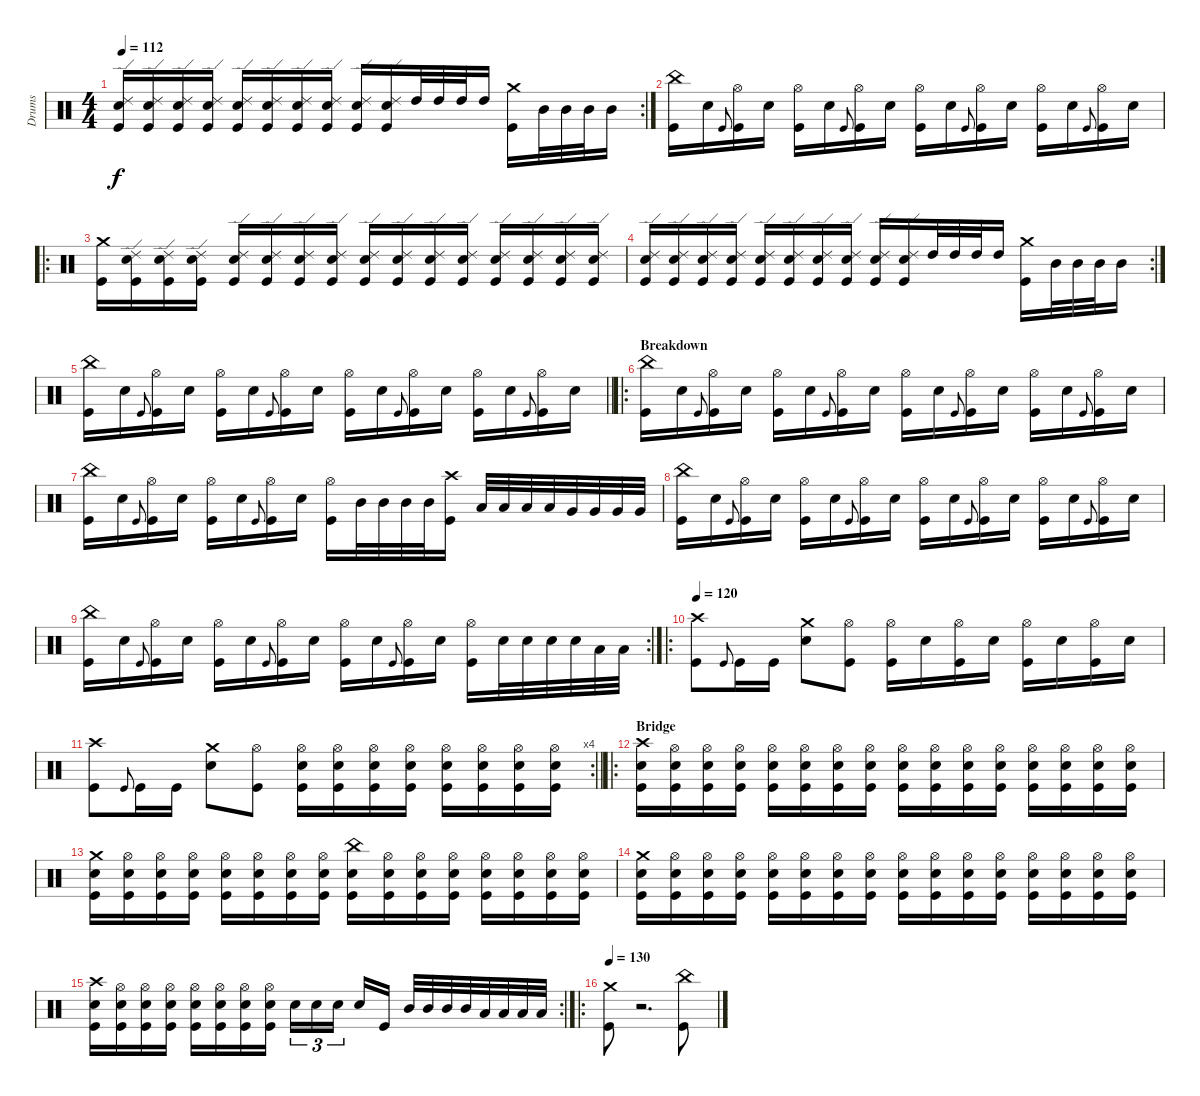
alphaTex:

\track ("Drums" "Drums") {instrument percussion}
\staff {score}
\articulation defaults
\rc 2
\ts (4 4)
\tempo 112
\clef neutral
\ks aminor
("Ride (edge) 2" "Electric Snare (hit)" "Kick (hit)").16{dy f} ("Ride (edge) 2" "Electric Snare (hit)" "Kick (hit)").16 ("Ride (edge) 2" "Electric Snare (hit)" "Kick (hit)").16 ("Ride (edge) 2" "Electric Snare (hit)" "Kick (hit)").16 ("Ride (edge) 2" "Electric Snare (hit)" "Kick (hit)").16 ("Ride (edge) 2" "Electric Snare (hit)" "Kick (hit)").16 ("Ride (edge) 2" "Electric Snare (hit)" "Kick (hit)").16 ("Ride (edge) 2" "Electric Snare (hit)" "Kick (hit)").16 ("Ride (edge) 2" "Electric Snare (hit)" "Kick (hit)").16 ("Ride (edge) 2" "Electric Snare (hit)" "Kick (hit)").16 "High Tom (hit)".32 "High Tom (hit)".32 "High Tom (hit)".32 "High Tom (hit)".16 ("Crash medium (hit)" "Kick (hit)").16 "Mid Tom (hit)".32 "Mid Tom (hit)".32 "Mid Tom (hit)".32 "Mid Tom (hit)".16 |
("China (hit)" "Kick (hit)").16 "Electric Snare (hit)".16 "Kick (hit)".8{gr onbeat} ("Hi-Hat (open)" "Kick (hit)").16 "Electric Snare (hit)".16 ("Hi-Hat (open)" "Kick (hit)").16 "Electric Snare (hit)".16 "Kick (hit)".8{gr onbeat} ("Hi-Hat (open)" "Kick (hit)").16 "Electric Snare (hit)".16 ("Hi-Hat (open)" "Kick (hit)").16 "Electric Snare (hit)".16 "Kick (hit)".8{gr onbeat} ("Hi-Hat (open)" "Kick (hit)").16 "Electric Snare (hit)".16 ("Hi-Hat (open)" "Kick (hit)").16 "Electric Snare (hit)".16 "Kick (hit)".8{gr onbeat} ("Hi-Hat (open)" "Kick (hit)").16 "Electric Snare (hit)".16 |
\ro
("Crash medium (hit)" "Kick (hit)").16 ("Ride (edge) 2" "Electric Snare (hit)" "Kick (hit)").16 ("Ride (edge) 2" "Electric Snare (hit)" "Kick (hit)").16 ("Ride (edge) 2" "Electric Snare (hit)" "Kick (hit)").16 ("Ride (edge) 2" "Electric Snare (hit)" "Kick (hit)").16 ("Ride (edge) 2" "Electric Snare (hit)" "Kick (hit)").16 ("Ride (edge) 2" "Electric Snare (hit)" "Kick (hit)").16 ("Ride (edge) 2" "Electric Snare (hit)" "Kick (hit)").16 ("Ride (edge) 2" "Electric Snare (hit)" "Kick (hit)").16 ("Ride (edge) 2" "Electric Snare (hit)" "Kick (hit)").16 ("Ride (edge) 2" "Electric Snare (hit)" "Kick (hit)").16 ("Ride (edge) 2" "Electric Snare (hit)" "Kick (hit)").16 ("Ride (edge) 2" "Electric Snare (hit)" "Kick (hit)").16 ("Ride (edge) 2" "Electric Snare (hit)" "Kick (hit)").16 ("Ride (edge) 2" "Electric Snare (hit)" "Kick (hit)").16 ("Ride (edge) 2" "Electric Snare (hit)" "Kick (hit)").16 |
\rc 2
("Ride (edge) 2" "Electric Snare (hit)" "Kick (hit)").16 ("Ride (edge) 2" "Electric Snare (hit)" "Kick (hit)").16 ("Ride (edge) 2" "Electric Snare (hit)" "Kick (hit)").16 ("Ride (edge) 2" "Electric Snare (hit)" "Kick (hit)").16 ("Ride (edge) 2" "Electric Snare (hit)" "Kick (hit)").16 ("Ride (edge) 2" "Electric Snare (hit)" "Kick (hit)").16 ("Ride (edge) 2" "Electric Snare (hit)" "Kick (hit)").16 ("Ride (edge) 2" "Electric Snare (hit)" "Kick (hit)").16 ("Ride (edge) 2" "Electric Snare (hit)" "Kick (hit)").16 ("Ride (edge) 2" "Electric Snare (hit)" "Kick (hit)").16 "High Tom (hit)".32 "High Tom (hit)".32 "High Tom (hit)".32 "High Tom (hit)".16 ("Crash medium (hit)" "Kick (hit)").16 "Mid Tom (hit)".32 "Mid Tom (hit)".32 "Mid Tom (hit)".32 "Mid Tom (hit)".16 |
\barLineRight lightlight
("China (hit)" "Kick (hit)").16 "Electric Snare (hit)".16 "Kick (hit)".8{gr onbeat} ("Hi-Hat (open)" "Kick (hit)").16 "Electric Snare (hit)".16 ("Hi-Hat (open)" "Kick (hit)").16 "Electric Snare (hit)".16 "Kick (hit)".8{gr onbeat} ("Hi-Hat (open)" "Kick (hit)").16 "Electric Snare (hit)".16 ("Hi-Hat (open)" "Kick (hit)").16 "Electric Snare (hit)".16 "Kick (hit)".8{gr onbeat} ("Hi-Hat (open)" "Kick (hit)").16 "Electric Snare (hit)".16 ("Hi-Hat (open)" "Kick (hit)").16 "Electric Snare (hit)".16 "Kick (hit)".8{gr onbeat} ("Hi-Hat (open)" "Kick (hit)").16 "Electric Snare (hit)".16 |
\ro
\section ("" "Breakdown")
("China (hit)" "Kick (hit)").16 "Electric Snare (hit)".16 "Kick (hit)".8{gr onbeat} ("Hi-Hat (open)" "Kick (hit)").16 "Electric Snare (hit)".16 ("Hi-Hat (open)" "Kick (hit)").16 "Electric Snare (hit)".16 "Kick (hit)".8{gr onbeat} ("Hi-Hat (open)" "Kick (hit)").16 "Electric Snare (hit)".16 ("Hi-Hat (open)" "Kick (hit)").16 "Electric Snare (hit)".16 "Kick (hit)".8{gr onbeat} ("Hi-Hat (open)" "Kick (hit)").16 "Electric Snare (hit)".16 ("Hi-Hat (open)" "Kick (hit)").16 "Electric Snare (hit)".16 "Kick (hit)".8{gr onbeat} ("Hi-Hat (open)" "Kick (hit)").16 "Electric Snare (hit)".16 |
("China (hit)" "Kick (hit)").16 "Electric Snare (hit)".16 "Kick (hit)".8{gr onbeat} ("Hi-Hat (open)" "Kick (hit)").16 "Electric Snare (hit)".16 ("Hi-Hat (open)" "Kick (hit)").16 "Electric Snare (hit)".16 "Kick (hit)".8{gr onbeat} ("Hi-Hat (open)" "Kick (hit)").16 "Electric Snare (hit)".16 ("Hi-Hat (open)" "Kick (hit)").16 "Mid Tom (hit)".32 "Mid Tom (hit)".32 "Mid Tom (hit)".32 "Mid Tom (hit)".32 ("Crash high (hit)" "Kick (hit)").16 "Low Tom (hit)".32 "Low Tom (hit)".32 "Low Tom (hit)".32 "Low Tom (hit)".32 "Very Low Tom (hit)".32 "Very Low Tom (hit)".32 "Very Low Tom (hit)".32 "Very Low Tom (hit)".32 |
("China (hit)" "Kick (hit)").16 "Electric Snare (hit)".16 "Kick (hit)".8{gr onbeat} ("Hi-Hat (open)" "Kick (hit)").16 "Electric Snare (hit)".16 ("Hi-Hat (open)" "Kick (hit)").16 "Electric Snare (hit)".16 "Kick (hit)".8{gr onbeat} ("Hi-Hat (open)" "Kick (hit)").16 "Electric Snare (hit)".16 ("Hi-Hat (open)" "Kick (hit)").16 "Electric Snare (hit)".16 "Kick (hit)".8{gr onbeat} ("Hi-Hat (open)" "Kick (hit)").16 "Electric Snare (hit)".16 ("Hi-Hat (open)" "Kick (hit)").16 "Electric Snare (hit)".16 "Kick (hit)".8{gr onbeat} ("Hi-Hat (open)" "Kick (hit)").16 "Electric Snare (hit)".16 |
\rc 2
("China (hit)" "Kick (hit)").16 "Electric Snare (hit)".16 "Kick (hit)".8{gr onbeat} ("Hi-Hat (open)" "Kick (hit)").16 "Electric Snare (hit)".16 ("Hi-Hat (open)" "Kick (hit)").16 "Electric Snare (hit)".16 "Kick (hit)".8{gr onbeat} ("Hi-Hat (open)" "Kick (hit)").16 "Electric Snare (hit)".16 ("Hi-Hat (open)" "Kick (hit)").16 "Electric Snare (hit)".16 "Kick (hit)".8{gr onbeat} ("Hi-Hat (open)" "Kick (hit)").16 "Electric Snare (hit)".16 ("Hi-Hat (open)" "Kick (hit)").16 "Electric Snare (hit)".32 "Electric Snare (hit)".32 "Electric Snare (hit)".32 "Electric Snare (hit)".32 "Low Tom (hit)".32 "Low Tom (hit)".32 |
\ro
\tempo 120
("Crash high (hit)" "Kick (hit)").8 "Kick (hit)".8{gr onbeat} "Kick (hit)".16 "Kick (hit)".16 ("Crash medium (hit)" "Electric Snare (hit)").8 ("Hi-Hat (open)" "Kick (hit)").8 ("Hi-Hat (open)" "Kick (hit)").16 "Electric Snare (hit)".16 ("Hi-Hat (open)" "Kick (hit)").16 "Electric Snare (hit)".16 ("Hi-Hat (open)" "Kick (hit)").16 "Electric Snare (hit)".16 ("Hi-Hat (open)" "Kick (hit)").16 "Electric Snare (hit)".16 |
\rc 4
\barLineRight lightlight
("Crash high (hit)" "Kick (hit)").8 "Kick (hit)".8{gr onbeat} "Kick (hit)".16 "Kick (hit)".16 ("Crash medium (hit)" "Electric Snare (hit)").8 ("Hi-Hat (open)" "Kick (hit)").8 ("Hi-Hat (open)" "Electric Snare (hit)" "Kick (hit)").16 ("Hi-Hat (open)" "Electric Snare (hit)" "Kick (hit)").16 ("Hi-Hat (open)" "Electric Snare (hit)" "Kick (hit)").16 ("Hi-Hat (open)" "Electric Snare (hit)" "Kick (hit)").16 ("Hi-Hat (open)" "Electric Snare (hit)" "Kick (hit)").16 ("Hi-Hat (open)" "Electric Snare (hit)" "Kick (hit)").16 ("Hi-Hat (open)" "Electric Snare (hit)" "Kick (hit)").16 ("Hi-Hat (open)" "Electric Snare (hit)" "Kick (hit)").16 |
\ro
\section ("" "Bridge")
("Crash high (hit)" "Electric Snare (hit)" "Kick (hit)").16 ("Hi-Hat (open)" "Electric Snare (hit)" "Kick (hit)").16 ("Hi-Hat (open)" "Electric Snare (hit)" "Kick (hit)").16 ("Hi-Hat (open)" "Electric Snare (hit)" "Kick (hit)").16 ("Hi-Hat (open)" "Electric Snare (hit)" "Kick (hit)").16 ("Hi-Hat (open)" "Electric Snare (hit)" "Kick (hit)").16 ("Hi-Hat (open)" "Electric Snare (hit)" "Kick (hit)").16 ("Hi-Hat (open)" "Electric Snare (hit)" "Kick (hit)").16 ("Hi-Hat (open)" "Electric Snare (hit)" "Kick (hit)").16 ("Hi-Hat (open)" "Electric Snare (hit)" "Kick (hit)").16 ("Hi-Hat (open)" "Electric Snare (hit)" "Kick (hit)").16 ("Hi-Hat (open)" "Electric Snare (hit)" "Kick (hit)").16 ("Hi-Hat (open)" "Electric Snare (hit)" "Kick (hit)").16 ("Hi-Hat (open)" "Electric Snare (hit)" "Kick (hit)").16 ("Hi-Hat (open)" "Electric Snare (hit)" "Kick (hit)").16 ("Hi-Hat (open)" "Electric Snare (hit)" "Kick (hit)").16 |
("Crash medium (hit)" "Electric Snare (hit)" "Kick (hit)").16 ("Hi-Hat (open)" "Electric Snare (hit)" "Kick (hit)").16 ("Hi-Hat (open)" "Electric Snare (hit)" "Kick (hit)").16 ("Hi-Hat (open)" "Electric Snare (hit)" "Kick (hit)").16 ("Hi-Hat (open)" "Electric Snare (hit)" "Kick (hit)").16 ("Hi-Hat (open)" "Electric Snare (hit)" "Kick (hit)").16 ("Hi-Hat (open)" "Electric Snare (hit)" "Kick (hit)").16 ("Hi-Hat (open)" "Electric Snare (hit)" "Kick (hit)").16 ("China (hit)" "Electric Snare (hit)" "Kick (hit)").16 ("Hi-Hat (open)" "Electric Snare (hit)" "Kick (hit)").16 ("Hi-Hat (open)" "Electric Snare (hit)" "Kick (hit)").16 ("Hi-Hat (open)" "Electric Snare (hit)" "Kick (hit)").16 ("Hi-Hat (open)" "Electric Snare (hit)" "Kick (hit)").16 ("Hi-Hat (open)" "Electric Snare (hit)" "Kick (hit)").16 ("Hi-Hat (open)" "Electric Snare (hit)" "Kick (hit)").16 ("Hi-Hat (open)" "Electric Snare (hit)" "Kick (hit)").16 |
("Crash medium (hit)" "Electric Snare (hit)" "Kick (hit)").16 ("Hi-Hat (open)" "Electric Snare (hit)" "Kick (hit)").16 ("Hi-Hat (open)" "Electric Snare (hit)" "Kick (hit)").16 ("Hi-Hat (open)" "Electric Snare (hit)" "Kick (hit)").16 ("Hi-Hat (open)" "Electric Snare (hit)" "Kick (hit)").16 ("Hi-Hat (open)" "Electric Snare (hit)" "Kick (hit)").16 ("Hi-Hat (open)" "Electric Snare (hit)" "Kick (hit)").16 ("Hi-Hat (open)" "Electric Snare (hit)" "Kick (hit)").16 ("Hi-Hat (open)" "Electric Snare (hit)" "Kick (hit)").16 ("Hi-Hat (open)" "Electric Snare (hit)" "Kick (hit)").16 ("Hi-Hat (open)" "Electric Snare (hit)" "Kick (hit)").16 ("Hi-Hat (open)" "Electric Snare (hit)" "Kick (hit)").16 ("Hi-Hat (open)" "Electric Snare (hit)" "Kick (hit)").16 ("Hi-Hat (open)" "Electric Snare (hit)" "Kick (hit)").16 ("Hi-Hat (open)" "Electric Snare (hit)" "Kick (hit)").16 ("Hi-Hat (open)" "Electric Snare (hit)" "Kick (hit)").16 |
\rc 2
("Crash high (hit)" "Electric Snare (hit)" "Kick (hit)").16 ("Hi-Hat (open)" "Electric Snare (hit)" "Kick (hit)").16 ("Hi-Hat (open)" "Electric Snare (hit)" "Kick (hit)").16 ("Hi-Hat (open)" "Electric Snare (hit)" "Kick (hit)").16 ("Hi-Hat (open)" "Electric Snare (hit)" "Kick (hit)").16 ("Hi-Hat (open)" "Electric Snare (hit)" "Kick (hit)").16 ("Hi-Hat (open)" "Electric Snare (hit)" "Kick (hit)").16 ("Hi-Hat (open)" "Electric Snare (hit)" "Kick (hit)").16 "Electric Snare (hit)".16{tu (3 2)} "Electric Snare (hit)".16{tu (3 2)} "Electric Snare (hit)".16{tu (3 2) beam splitsecondary} "Electric Snare (hit)".16 "Kick (hit)".16 "Mid Tom (hit)".32 "Mid Tom (hit)".32 "Mid Tom (hit)".32 "Mid Tom (hit)".32 "Low Tom (hit)".32 "Low Tom (hit)".32 "Low Tom (hit)".32 "Low Tom (hit)".32 |
\ro
\tempo 130
("Crash medium (hit)" "Kick (hit)").8 r.2{d} ("China (hit)" "Kick (hit)").8
